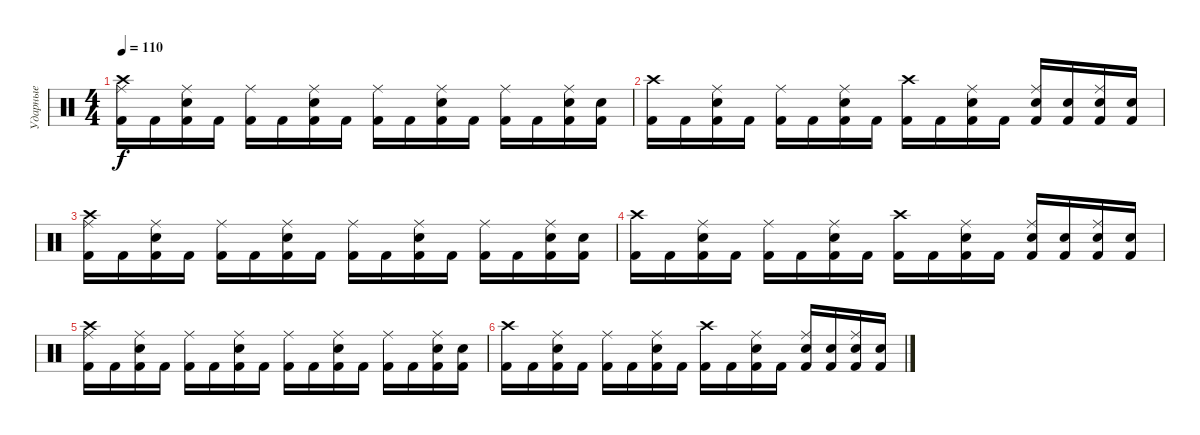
\track ("Ударные" "Ударные") {instrument percussion}
\staff {score}
\articulation defaults
\ts (4 4)
\tempo 110
\clef neutral
\ks c
("Kick (hit) 2" "Crash high (hit)" "Ride (middle)").16{dy f} "Kick (hit) 2".16 ("Kick (hit) 2" "Ride (middle)" "Snare (hit) 2").16 "Kick (hit) 2".16 ("Kick (hit) 2" "Ride (middle)").16 "Kick (hit) 2".16 ("Kick (hit) 2" "Ride (middle)" "Snare (hit) 2").16 "Kick (hit) 2".16 ("Kick (hit) 2" "Ride (middle)").16 "Kick (hit) 2".16 ("Kick (hit) 2" "Ride (middle)" "Snare (hit) 2").16 "Kick (hit) 2".16 ("Kick (hit) 2" "Ride (middle)").16 "Kick (hit) 2".16 ("Kick (hit) 2" "Ride (middle)" "Snare (hit) 2").16 ("Kick (hit) 2" "Snare (hit) 2").16 |
("Kick (hit) 2" "Crash high (hit)").16 "Kick (hit) 2".16 ("Kick (hit) 2" "Ride (middle)" "Snare (hit) 2").16 "Kick (hit) 2".16 ("Kick (hit) 2" "Ride (middle)").16 "Kick (hit) 2".16 ("Kick (hit) 2" "Ride (middle)" "Snare (hit) 2").16 "Kick (hit) 2".16 ("Kick (hit) 2" "Crash high (hit)").16 "Kick (hit) 2".16 ("Kick (hit) 2" "Ride (middle)" "Snare (hit) 2").16 "Kick (hit) 2".16 ("Kick (hit) 2" "Ride (middle)" "Snare (hit) 2").16 ("Kick (hit) 2" "Snare (hit) 2").16 ("Kick (hit) 2" "Ride (middle)" "Snare (hit) 2").16 ("Kick (hit) 2" "Snare (hit) 2").16 |
("Kick (hit) 2" "Crash high (hit)" "Ride (middle)").16 "Kick (hit) 2".16 ("Kick (hit) 2" "Ride (middle)" "Snare (hit) 2").16 "Kick (hit) 2".16 ("Kick (hit) 2" "Ride (middle)").16 "Kick (hit) 2".16 ("Kick (hit) 2" "Ride (middle)" "Snare (hit) 2").16 "Kick (hit) 2".16 ("Kick (hit) 2" "Ride (middle)").16 "Kick (hit) 2".16 ("Kick (hit) 2" "Ride (middle)" "Snare (hit) 2").16 "Kick (hit) 2".16 ("Kick (hit) 2" "Ride (middle)").16 "Kick (hit) 2".16 ("Kick (hit) 2" "Ride (middle)" "Snare (hit) 2").16 ("Kick (hit) 2" "Snare (hit) 2").16 |
("Kick (hit) 2" "Crash high (hit)").16 "Kick (hit) 2".16 ("Kick (hit) 2" "Ride (middle)" "Snare (hit) 2").16 "Kick (hit) 2".16 ("Kick (hit) 2" "Ride (middle)").16 "Kick (hit) 2".16 ("Kick (hit) 2" "Ride (middle)" "Snare (hit) 2").16 "Kick (hit) 2".16 ("Kick (hit) 2" "Crash high (hit)").16 "Kick (hit) 2".16 ("Kick (hit) 2" "Ride (middle)" "Snare (hit) 2").16 "Kick (hit) 2".16 ("Kick (hit) 2" "Ride (middle)" "Snare (hit) 2").16 ("Kick (hit) 2" "Snare (hit) 2").16 ("Kick (hit) 2" "Ride (middle)" "Snare (hit) 2").16 ("Kick (hit) 2" "Snare (hit) 2").16 |
("Kick (hit) 2" "Crash high (hit)" "Ride (middle)").16 "Kick (hit) 2".16 ("Kick (hit) 2" "Ride (middle)" "Snare (hit) 2").16 "Kick (hit) 2".16 ("Kick (hit) 2" "Ride (middle)").16 "Kick (hit) 2".16 ("Kick (hit) 2" "Ride (middle)" "Snare (hit) 2").16 "Kick (hit) 2".16 ("Kick (hit) 2" "Ride (middle)").16 "Kick (hit) 2".16 ("Kick (hit) 2" "Ride (middle)" "Snare (hit) 2").16 "Kick (hit) 2".16 ("Kick (hit) 2" "Ride (middle)").16 "Kick (hit) 2".16 ("Kick (hit) 2" "Ride (middle)" "Snare (hit) 2").16 ("Kick (hit) 2" "Snare (hit) 2").16 |
("Kick (hit) 2" "Crash high (hit)").16 "Kick (hit) 2".16 ("Kick (hit) 2" "Ride (middle)" "Snare (hit) 2").16 "Kick (hit) 2".16 ("Kick (hit) 2" "Ride (middle)").16 "Kick (hit) 2".16 ("Kick (hit) 2" "Ride (middle)" "Snare (hit) 2").16 "Kick (hit) 2".16 ("Kick (hit) 2" "Crash high (hit)").16 "Kick (hit) 2".16 ("Kick (hit) 2" "Ride (middle)" "Snare (hit) 2").16 "Kick (hit) 2".16 ("Kick (hit) 2" "Ride (middle)" "Snare (hit) 2").16 ("Kick (hit) 2" "Snare (hit) 2").16 ("Kick (hit) 2" "Ride (middle)" "Snare (hit) 2").16 ("Kick (hit) 2" "Snare (hit) 2").16
